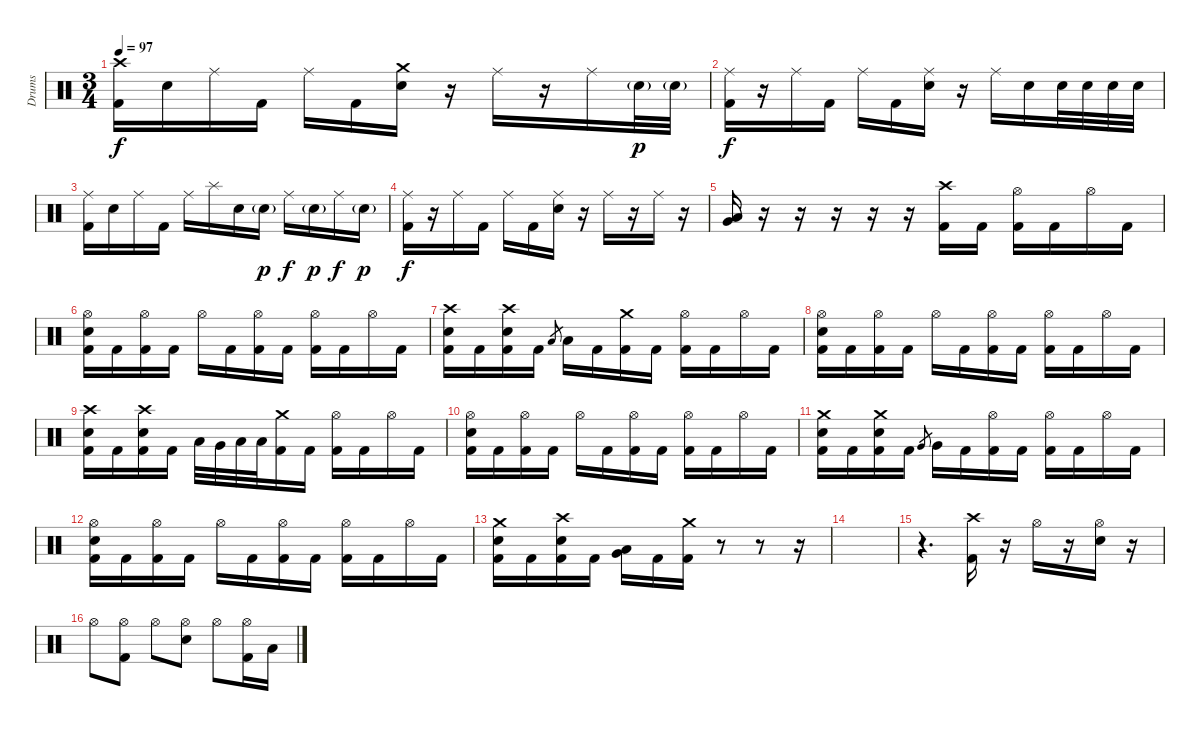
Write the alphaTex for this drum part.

\track ("Drums" "Drums") {instrument percussion}
\staff {score}
\articulation defaults
\ts (3 4)
\tempo 97
\clef neutral
\ks c
("Crash high (hit)" "Kick (hit) 2").16{dy f} "Electric Snare (hit)".16 "Ride (middle)".16 "Kick (hit) 2".16 "Ride (middle)".16 "Kick (hit) 2".16 ("Crash medium (hit)" "Electric Snare (hit)").16 r.16 "Ride (middle)".16 r.16 "Ride (middle)".16 "Electric Snare (hit)"{g}.32{dy p} "Electric Snare (hit)"{g}.32 |
("Ride (middle)" "Kick (hit) 2").16{dy f} r.16 "Ride (middle)".16 "Kick (hit) 2".16 "Ride (middle)".16 "Kick (hit) 2".16 ("Ride (middle)" "Electric Snare (hit)").16 r.16 "Ride (middle)".16 "Electric Snare (hit)".16 "Electric Snare (hit)".32 "Electric Snare (hit)".32 "Electric Snare (hit)".32 "Electric Snare (hit)".32 |
("Ride (middle)" "Kick (hit) 2").16 "Electric Snare (hit)".16 "Ride (middle)".16 "Kick (hit) 2".16 "Ride (middle)".16 "Splash (hit)".16 "Electric Snare (hit)".16 "Electric Snare (hit)"{g}.16{dy p} "Ride (middle)".16{dy f} "Electric Snare (hit)"{g}.16{dy p} "Ride (middle)".16{dy f} "Electric Snare (hit)"{g}.16{dy p} |
("Ride (middle)" "Kick (hit) 2").16{dy f} r.16 "Ride (middle)".16 "Kick (hit) 2".16 "Ride (middle)".16 "Kick (hit) 2".16 ("Ride (middle)" "Electric Snare (hit)").16 r.16 "Ride (middle)".16 r.16 "Ride (middle)".16 r.16 |
("Low Floor Tom (hit)" "Very Low Tom (hit)").16 r.16 r.16 r.16 r.16 r.16 ("Crash high (hit)" "Kick (hit) 2").16 "Kick (hit) 2".16 ("Hi-Hat (open)" "Kick (hit) 2").16 "Kick (hit) 2".16 "Hi-Hat (open)".16 "Kick (hit) 2".16 |
("Hi-Hat (open)" "Electric Snare (hit)" "Kick (hit) 2").16 "Kick (hit) 2".16 ("Hi-Hat (open)" "Kick (hit) 2").16 "Kick (hit) 2".16 "Hi-Hat (open)".16 "Kick (hit) 2".16 ("Hi-Hat (open)" "Kick (hit) 2").16 "Kick (hit) 2".16 ("Hi-Hat (open)" "Kick (hit) 2").16 "Kick (hit) 2".16 "Hi-Hat (open)".16 "Kick (hit) 2".16 |
("Crash high (hit)" "Electric Snare (hit)" "Kick (hit) 2").16 "Kick (hit) 2".16 ("Crash high (hit)" "Electric Snare (hit)" "Kick (hit) 2").16 "Kick (hit) 2".16 "Low Floor Tom (hit)".8{gr} "Low Floor Tom (hit)".16 "Kick (hit) 2".16 ("Crash medium (hit)" "Kick (hit) 2").16 "Kick (hit) 2".16 ("Hi-Hat (open)" "Kick (hit) 2").16 "Kick (hit) 2".16 "Hi-Hat (open)".16 "Kick (hit) 2".16 |
("Hi-Hat (open)" "Electric Snare (hit)" "Kick (hit) 2").16 "Kick (hit) 2".16 ("Hi-Hat (open)" "Kick (hit) 2").16 "Kick (hit) 2".16 "Hi-Hat (open)".16 "Kick (hit) 2".16 ("Hi-Hat (open)" "Kick (hit) 2").16 "Kick (hit) 2".16 ("Hi-Hat (open)" "Kick (hit) 2").16 "Kick (hit) 2".16 "Hi-Hat (open)".16 "Kick (hit) 2".16 |
("Crash high (hit)" "Electric Snare (hit)" "Kick (hit) 2").16 "Kick (hit) 2".16 ("Crash high (hit)" "Electric Snare (hit)" "Kick (hit) 2").16 "Kick (hit) 2".16 "Low Tom (hit)".32 "Very Low Tom (hit)".32 "Low Floor Tom (hit)".32 "Low Floor Tom (hit)".32 ("Crash medium (hit)" "Kick (hit) 2").16 "Kick (hit) 2".16 ("Hi-Hat (open)" "Kick (hit) 2").16 "Kick (hit) 2".16 "Hi-Hat (open)".16 "Kick (hit) 2".16 |
("Hi-Hat (open)" "Electric Snare (hit)" "Kick (hit) 2").16 "Kick (hit) 2".16 ("Hi-Hat (open)" "Kick (hit) 2").16 "Kick (hit) 2".16 "Hi-Hat (open)".16 "Kick (hit) 2".16 ("Hi-Hat (open)" "Kick (hit) 2").16 "Kick (hit) 2".16 ("Hi-Hat (open)" "Kick (hit) 2").16 "Kick (hit) 2".16 "Hi-Hat (open)".16 "Kick (hit) 2".16 |
("Crash medium (hit)" "Electric Snare (hit)" "Kick (hit) 2").16 "Kick (hit) 2".16 ("Crash medium (hit)" "Electric Snare (hit)" "Kick (hit) 2").16 "Kick (hit) 2".16 "Very Low Tom (hit)".8{gr} "Very Low Tom (hit)".16 "Kick (hit) 2".16 ("Hi-Hat (open)" "Kick (hit) 2").16 "Kick (hit) 2".16 ("Hi-Hat (open)" "Kick (hit) 2").16 "Kick (hit) 2".16 "Hi-Hat (open)".16 "Kick (hit) 2".16 |
("Hi-Hat (open)" "Electric Snare (hit)" "Kick (hit) 2").16 "Kick (hit) 2".16 ("Hi-Hat (open)" "Kick (hit) 2").16 "Kick (hit) 2".16 "Hi-Hat (open)".16 "Kick (hit) 2".16 ("Hi-Hat (open)" "Kick (hit) 2").16 "Kick (hit) 2".16 ("Hi-Hat (open)" "Kick (hit) 2").16 "Kick (hit) 2".16 "Hi-Hat (open)".16 "Kick (hit) 2".16 |
("Crash medium (hit)" "Electric Snare (hit)" "Kick (hit) 2").16 "Kick (hit) 2".16 ("Crash high (hit)" "Electric Snare (hit)" "Kick (hit) 2").16 "Kick (hit) 2".16 ("Low Tom (hit)" "Very Low Tom (hit)").16 "Kick (hit) 2".16 ("Crash medium (hit)" "Kick (hit) 2").16 r.8 r.8 r.16 |
|
r.4{d} ("Crash high (hit)" "Kick (hit) 2").16 r.16 "Hi-Hat (open)".16 r.16 ("Hi-Hat (open)" "Electric Snare (hit)").16 r.16 |
"Hi-Hat (open)".8 ("Hi-Hat (open)" "Kick (hit) 2").8 "Hi-Hat (open)".8 ("Hi-Hat (open)" "Electric Snare (hit)").8 "Hi-Hat (open)".8 ("Hi-Hat (open)" "Kick (hit) 2").16 "Low Tom (hit)".16
